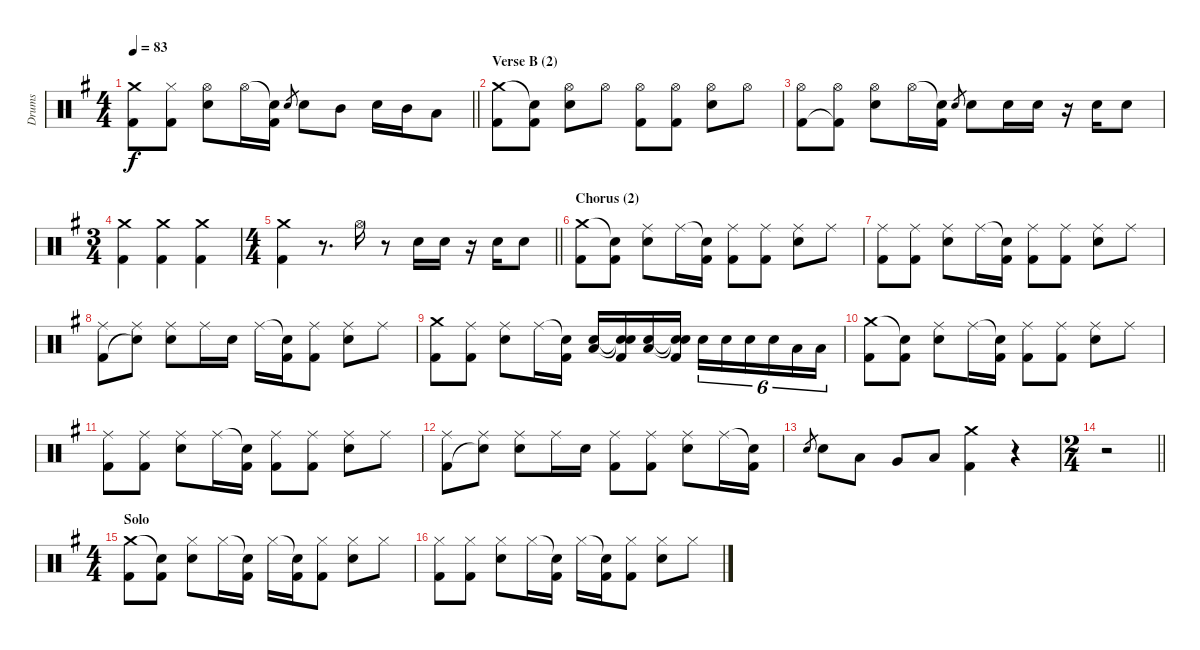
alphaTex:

\track ("Drums" "Drums") {instrument percussion}
\staff {score}
\articulation defaults
\ts (4 4)
\tempo 83
\clef neutral
\barLineRight lightlight
\ks eminor
("Crash medium (hit)" "Kick (hit) 2").8{dy f} ("Hi-Hat (closed)" "Kick (hit) 2").8 ("Hi-Hat (open)" "Electric Snare (hit)").8 "Hi-Hat (open)".16 ("Snare (hit)"{t} "Kick (hit) 2").16 "Electric Snare (hit)".8{gr} "Electric Snare (hit)".8 "Mid Tom (hit)".8 "Electric Snare (hit)".16 "Mid Tom (hit)".16 "Low Floor Tom (hit)".8 |
\section ("" "Verse B (2)")
("Crash medium (hit)" "Kick (hit) 2").8 ("Snare (hit)"{t} "Kick (hit) 2").8 ("Hi-Hat (open)" "Electric Snare (hit)").8 "Hi-Hat (open)".8 ("Hi-Hat (open)" "Kick (hit) 2").8 ("Hi-Hat (open)" "Kick (hit) 2").8 ("Hi-Hat (open)" "Electric Snare (hit)").8 "Hi-Hat (open)".8 |
("Hi-Hat (open)" "Kick (hit) 2").8 ("Hi-Hat (open)" "Kick (hit) 2"{t}).8 ("Hi-Hat (open)" "Electric Snare (hit)").8 "Hi-Hat (open)".16 ("Snare (hit)"{t} "Kick (hit) 2").16 "Electric Snare (hit)".8{gr} "Electric Snare (hit)".8 "Electric Snare (hit)".16 "Electric Snare (hit)".16 r.16 "Electric Snare (hit)".16 "Electric Snare (hit)".8 |
\ts (3 4)
("Crash medium (hit)" "Kick (hit) 2").4 ("Crash medium (hit)" "Kick (hit) 2").4 ("Crash medium (hit)" "Kick (hit) 2").4 |
\ts (4 4)
\barLineRight lightlight
("Crash medium (hit)" "Kick (hit) 2").4 r.8{d} "Hi-Hat (open)".16 r.8 "Electric Snare (hit)".16 "Electric Snare (hit)".16 r.16 "Electric Snare (hit)".16 "Electric Snare (hit)".8 |
\section ("" "Chorus (2)")
("Crash medium (hit)" "Kick (hit) 2").8 ("Snare (hit)"{t} "Kick (hit) 2").8 ("Ride (middle)" "Electric Snare (hit)").8 "Ride (middle)".16 ("Snare (hit)"{t} "Kick (hit) 2").16 ("Ride (middle)" "Kick (hit) 2").8 ("Ride (middle)" "Kick (hit) 2").8 ("Ride (middle)" "Electric Snare (hit)").8 "Ride (middle)".8 |
("Ride (middle)" "Kick (hit) 2").8 ("Ride (middle)" "Kick (hit) 2").8 ("Ride (middle)" "Electric Snare (hit)").8 "Ride (middle)".16 ("Snare (hit)"{t} "Kick (hit) 2").16 ("Ride (middle)" "Kick (hit) 2").8 ("Ride (middle)" "Kick (hit) 2").8 ("Ride (middle)" "Electric Snare (hit)").8 "Ride (middle)".8 |
("Ride (middle)" "Kick (hit) 2").8 ("Ride (middle)" "Snare (hit)"{t}).8 ("Ride (middle)" "Electric Snare (hit)").8 "Ride (middle)".16 "Electric Snare (hit)".16 "Ride (middle)".16 ("Snare (hit)"{t} "Kick (hit) 2").16 ("Ride (middle)" "Kick (hit) 2").8 ("Ride (middle)" "Electric Snare (hit)").8 "Ride (middle)".8 |
("Crash medium (hit)" "Kick (hit) 2").8 ("Ride (middle)" "Kick (hit) 2").8 ("Ride (middle)" "Electric Snare (hit)").8 "Ride (middle)".16 ("Snare (hit)"{t} "Kick (hit) 2").16 ("Electric Snare (hit)" "Low Floor Tom (hit)").16 ("Snare (hit)"{t} "Snare (hit)"{t} "Kick (hit) 2").16 ("Electric Snare (hit)" "Low Floor Tom (hit)").16 ("Snare (hit)"{t} "Snare (hit)"{t} "Kick (hit) 2").16 "Electric Snare (hit)".16{tu (6 4)} "Electric Snare (hit)".16{tu (6 4)} "Electric Snare (hit)".16{tu (6 4)} "Electric Snare (hit)".16{tu (6 4)} "Low Tom (hit)".16{tu (6 4)} "Low Tom (hit)".16{tu (6 4)} |
("Crash medium (hit)" "Kick (hit) 2").8 ("Snare (hit)"{t} "Kick (hit) 2").8 ("Ride (middle)" "Electric Snare (hit)").8 "Ride (middle)".16 ("Snare (hit)"{t} "Kick (hit) 2").16 ("Ride (middle)" "Kick (hit) 2").8 ("Ride (middle)" "Kick (hit) 2").8 ("Ride (middle)" "Electric Snare (hit)").8 "Ride (middle)".8 |
("Ride (middle)" "Kick (hit) 2").8 ("Ride (middle)" "Kick (hit) 2").8 ("Ride (middle)" "Electric Snare (hit)").8 "Ride (middle)".16 ("Snare (hit)"{t} "Kick (hit) 2").16 ("Ride (middle)" "Kick (hit) 2").8 ("Ride (middle)" "Kick (hit) 2").8 ("Ride (middle)" "Electric Snare (hit)").8 "Ride (middle)".8 |
("Ride (middle)" "Kick (hit) 2").8 ("Ride (middle)" "Snare (hit)"{t}).8 ("Ride (middle)" "Electric Snare (hit)").8 "Ride (middle)".16 "Electric Snare (hit)".16 ("Ride (middle)" "Kick (hit) 2").8 ("Ride (middle)" "Kick (hit) 2").8 ("Ride (middle)" "Electric Snare (hit)").8 "Ride (middle)".16 ("Snare (hit)"{t} "Kick (hit) 2").16 |
"Electric Snare (hit)".8{gr} "Electric Snare (hit)".8 "Low Tom (hit)".8 "Very Low Tom (hit)".8 "Low Floor Tom (hit)".8 ("Crash medium (hit)" "Kick (hit) 2").4 r.4 |
\ts (2 4)
\barLineRight lightlight
r.2 |
\ts (4 4)
\section ("" "Solo")
("Crash medium (hit)" "Kick (hit) 2").8 ("Snare (hit)"{t} "Kick (hit) 2").8 ("Hi-Hat (closed)" "Electric Snare (hit)").8 "Hi-Hat (closed)".16 ("Snare (hit)"{t} "Kick (hit) 2").16 "Hi-Hat (closed)".16 ("Snare (hit)"{t} "Kick (hit) 2").16 ("Hi-Hat (closed)" "Kick (hit) 2").8 ("Hi-Hat (closed)" "Electric Snare (hit)").8 "Hi-Hat (closed)".8 |
("Hi-Hat (closed)" "Kick (hit) 2").8 ("Hi-Hat (closed)" "Kick (hit) 2").8 ("Hi-Hat (closed)" "Electric Snare (hit)").8 "Hi-Hat (closed)".16 ("Snare (hit)"{t} "Kick (hit) 2").16 "Hi-Hat (closed)".16 ("Snare (hit)"{t} "Kick (hit) 2").16 ("Hi-Hat (closed)" "Kick (hit) 2").8 ("Hi-Hat (closed)" "Electric Snare (hit)").8 "Hi-Hat (closed)".8
